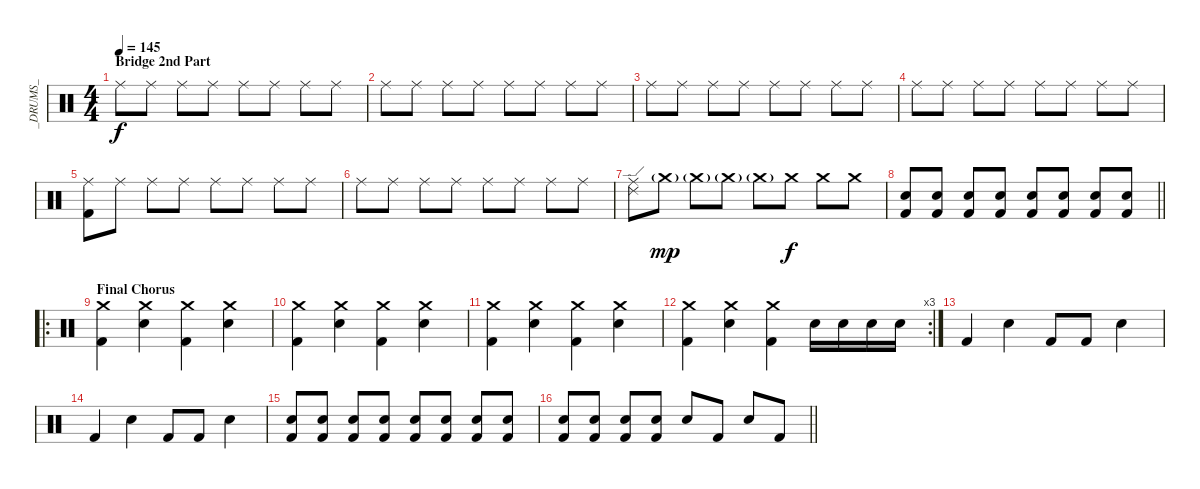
\track ("_DRUMS_" "_DRUMS_") {instrument percussion}
\staff {score}
\articulation defaults
\ts (4 4)
\section ("" "Bridge 2nd Part")
\tempo 145
\clef neutral
\ks c "Ride (middle)".8{dy f} "Ride (middle)".8 "Ride (middle)".8 "Ride (middle)".8 "Ride (middle)".8 "Ride (middle)".8 "Ride (middle)".8 "Ride (middle)".8
|
"Ride (middle)".8 "Ride (middle)".8 "Ride (middle)".8 "Ride (middle)".8 "Ride (middle)".8 "Ride (middle)".8 "Ride (middle)".8 "Ride (middle)".8 |
"Ride (middle)".8 "Ride (middle)".8 "Ride (middle)".8 "Ride (middle)".8 "Ride (middle)".8 "Ride (middle)".8 "Ride (middle)".8 "Ride (middle)".8 |
"Ride (middle)".8 "Ride (middle)".8 "Ride (middle)".8 "Ride (middle)".8 "Ride (middle)".8 "Ride (middle)".8 "Ride (middle)".8 "Ride (middle)".8 |
("Ride (middle)" "Kick (hit) 2").8 "Ride (middle)".8 "Ride (middle)".8 "Ride (middle)".8 "Ride (middle)".8 "Ride (middle)".8 "Ride (middle)".8 "Ride (middle)".8 |
"Ride (middle)".8 "Ride (middle)".8 "Ride (middle)".8 "Ride (middle)".8 "Ride (middle)".8 "Ride (middle)".8 "Ride (middle)".8 "Ride (middle)".8 |
("Ride (edge) 2" "Ride (middle)").8 "Crash medium (hit)"{g}.8{dy mp} "Crash medium (hit)"{g}.8 "Crash medium (hit)"{g}.8 "Crash medium (hit)"{g}.8 "Crash medium (hit)".8{dy f} "Crash medium (hit)".8 "Crash medium (hit)".8 |
\barLineRight lightlight
("Electric Snare (hit)" "Kick (hit) 2").8 ("Electric Snare (hit)" "Kick (hit) 2").8 ("Electric Snare (hit)" "Kick (hit) 2").8 ("Electric Snare (hit)" "Kick (hit) 2").8 ("Electric Snare (hit)" "Kick (hit) 2").8 ("Electric Snare (hit)" "Kick (hit) 2").8 ("Electric Snare (hit)" "Kick (hit) 2").8 ("Electric Snare (hit)" "Kick (hit) 2").8 |
\ro
\section ("" "Final Chorus")
("Crash medium (hit)" "Kick (hit) 2").4 ("Crash medium (hit)" "Electric Snare (hit)").4 ("Crash medium (hit)" "Kick (hit) 2").4 ("Crash medium (hit)" "Electric Snare (hit)").4 |
("Crash medium (hit)" "Kick (hit) 2").4 ("Crash medium (hit)" "Electric Snare (hit)").4 ("Crash medium (hit)" "Kick (hit) 2").4 ("Crash medium (hit)" "Electric Snare (hit)").4 |
("Crash medium (hit)" "Kick (hit) 2").4 ("Crash medium (hit)" "Electric Snare (hit)").4 ("Crash medium (hit)" "Kick (hit) 2").4 ("Crash medium (hit)" "Electric Snare (hit)").4 |
\rc 3
("Crash medium (hit)" "Kick (hit) 2").4 ("Crash medium (hit)" "Electric Snare (hit)").4 ("Crash medium (hit)" "Kick (hit) 2").4 "Electric Snare (hit)".16 "Electric Snare (hit)".16 "Electric Snare (hit)".16 "Electric Snare (hit)".16 |
"Kick (hit) 2".4 "Electric Snare (hit)".4 "Kick (hit) 2".8 "Kick (hit) 2".8 "Electric Snare (hit)".4 |
"Kick (hit) 2".4 "Electric Snare (hit)".4 "Kick (hit) 2".8 "Kick (hit) 2".8 "Electric Snare (hit)".4 |
("Electric Snare (hit)" "Kick (hit) 2").8 ("Electric Snare (hit)" "Kick (hit) 2").8 ("Electric Snare (hit)" "Kick (hit) 2").8 ("Electric Snare (hit)" "Kick (hit) 2").8 ("Electric Snare (hit)" "Kick (hit) 2").8 ("Electric Snare (hit)" "Kick (hit) 2").8 ("Electric Snare (hit)" "Kick (hit) 2").8 ("Electric Snare (hit)" "Kick (hit) 2").8 |
\barLineRight lightlight
("Electric Snare (hit)" "Kick (hit) 2").8 ("Electric Snare (hit)" "Kick (hit) 2").8 ("Electric Snare (hit)" "Kick (hit) 2").8 ("Electric Snare (hit)" "Kick (hit) 2").8 "Electric Snare (hit)".8 "Kick (hit) 2".8 "Electric Snare (hit)".8 "Kick (hit) 2".8
